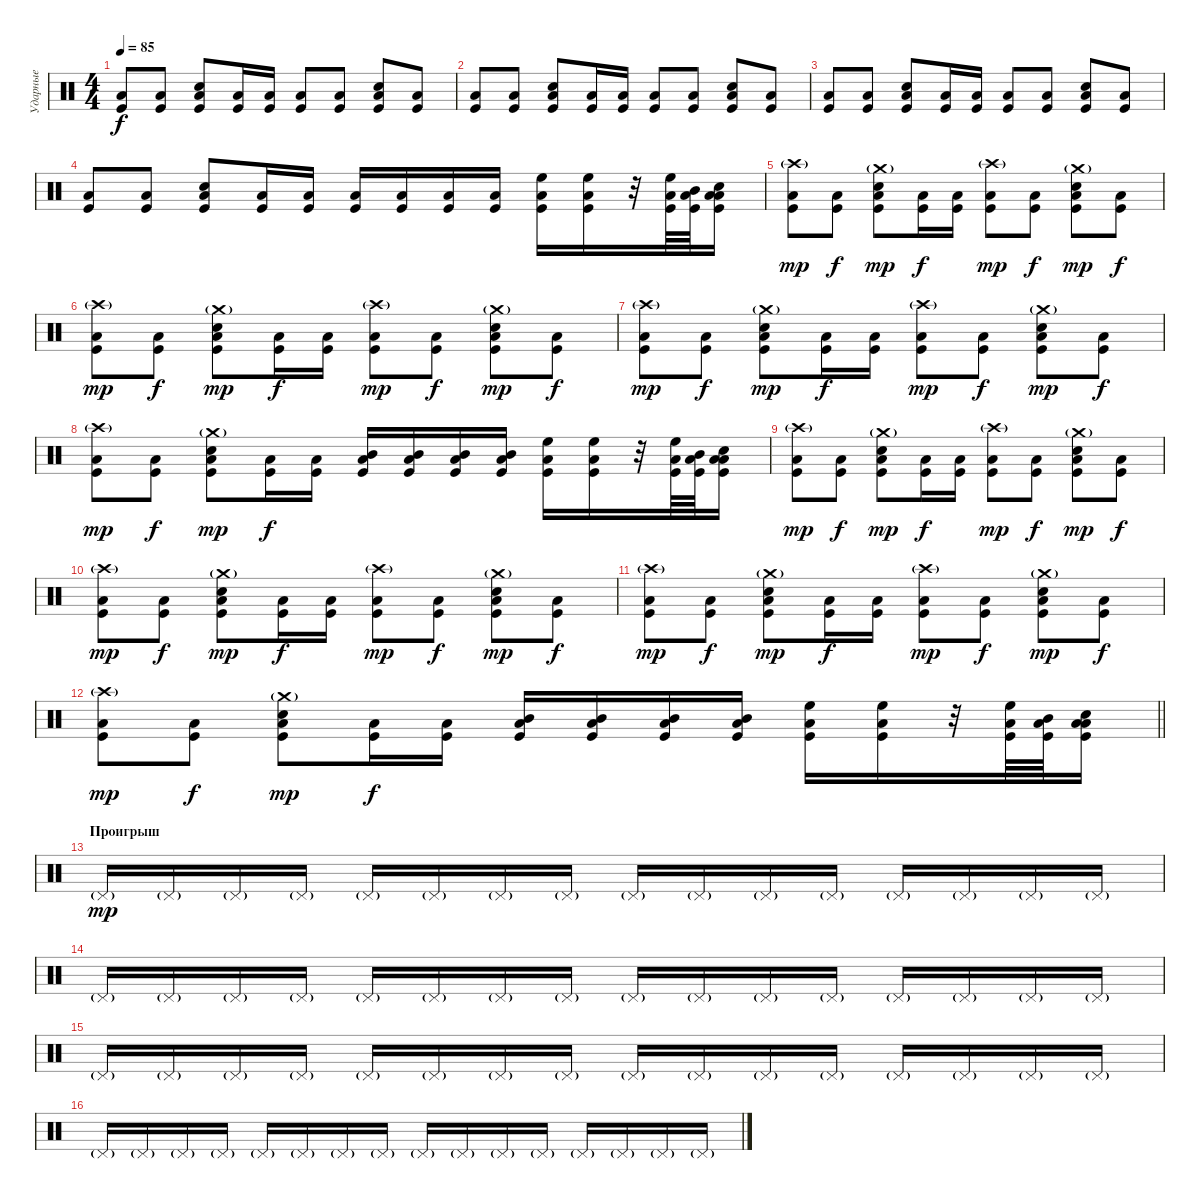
\track ("Ударные" "Ударные") {instrument percussion}
\staff {score}
\articulation defaults
\ts (4 4)
\tempo 85
\clef neutral
\ks c
("Low Tom (hit)" "Kick (hit)").8{dy f} ("Low Tom (hit)" "Kick (hit)").8 ("Electric Snare (hit)" "Low Tom (hit)" "Kick (hit)").8 ("Low Tom (hit)" "Kick (hit)").16 ("Low Tom (hit)" "Kick (hit)").16 ("Low Tom (hit)" "Kick (hit)").8 ("Low Tom (hit)" "Kick (hit)").8 ("Electric Snare (hit)" "Low Tom (hit)" "Kick (hit)").8 ("Low Tom (hit)" "Kick (hit)").8 |
("Low Tom (hit)" "Kick (hit)").8 ("Low Tom (hit)" "Kick (hit)").8 ("Electric Snare (hit)" "Low Tom (hit)" "Kick (hit)").8 ("Low Tom (hit)" "Kick (hit)").16 ("Low Tom (hit)" "Kick (hit)").16 ("Low Tom (hit)" "Kick (hit)").8 ("Low Tom (hit)" "Kick (hit)").8 ("Electric Snare (hit)" "Low Tom (hit)" "Kick (hit)").8 ("Low Tom (hit)" "Kick (hit)").8 |
("Low Tom (hit)" "Kick (hit)").8 ("Low Tom (hit)" "Kick (hit)").8 ("Electric Snare (hit)" "Low Tom (hit)" "Kick (hit)").8 ("Low Tom (hit)" "Kick (hit)").16 ("Low Tom (hit)" "Kick (hit)").16 ("Low Tom (hit)" "Kick (hit)").8 ("Low Tom (hit)" "Kick (hit)").8 ("Electric Snare (hit)" "Low Tom (hit)" "Kick (hit)").8 ("Low Tom (hit)" "Kick (hit)").8 |
("Low Tom (hit)" "Kick (hit)").8 ("Low Tom (hit)" "Kick (hit)").8 ("Electric Snare (hit)" "Low Tom (hit)" "Kick (hit)").8 ("Low Tom (hit)" "Kick (hit)").16 ("Low Tom (hit)" "Kick (hit)").16 ("Low Tom (hit)" "Kick (hit)").16 ("Low Tom (hit)" "Kick (hit)").16 ("Low Tom (hit)" "Kick (hit)").16 ("Low Tom (hit)" "Kick (hit)").16 ("High Floor Tom (hit)" "Low Tom (hit)" "Kick (hit)").16 ("High Floor Tom (hit)" "Low Tom (hit)" "Kick (hit)").16 r.32 ("High Floor Tom (hit)" "Low Tom (hit)" "Kick (hit)").64 ("Mid Tom (hit)" "Low Tom (hit)" "Kick (hit)").64 ("Electric Snare (hit)" "Low Tom (hit)" "Low Tom (hit)" "Kick (hit)").16 |
("Crash high (hit)"{g} "Low Tom (hit)" "Kick (hit)").8{dy mp} ("Low Tom (hit)" "Kick (hit)").8{dy f} ("Crash medium (hit)"{g} "Electric Snare (hit)" "Low Tom (hit)" "Kick (hit)").8{dy mp} ("Low Tom (hit)" "Kick (hit)").16{dy f} ("Low Tom (hit)" "Kick (hit)").16 ("Crash high (hit)"{g} "Low Tom (hit)" "Kick (hit)").8{dy mp} ("Low Tom (hit)" "Kick (hit)").8{dy f} ("Crash medium (hit)"{g} "Electric Snare (hit)" "Low Tom (hit)" "Kick (hit)").8{dy mp} ("Low Tom (hit)" "Kick (hit)").8{dy f} |
("Crash high (hit)"{g} "Low Tom (hit)" "Kick (hit)").8{dy mp} ("Low Tom (hit)" "Kick (hit)").8{dy f} ("Crash medium (hit)"{g} "Electric Snare (hit)" "Low Tom (hit)" "Kick (hit)").8{dy mp} ("Low Tom (hit)" "Kick (hit)").16{dy f} ("Low Tom (hit)" "Kick (hit)").16 ("Crash high (hit)"{g} "Low Tom (hit)" "Kick (hit)").8{dy mp} ("Low Tom (hit)" "Kick (hit)").8{dy f} ("Crash medium (hit)"{g} "Electric Snare (hit)" "Low Tom (hit)" "Kick (hit)").8{dy mp} ("Low Tom (hit)" "Kick (hit)").8{dy f} |
("Crash high (hit)"{g} "Low Tom (hit)" "Kick (hit)").8{dy mp} ("Low Tom (hit)" "Kick (hit)").8{dy f} ("Crash medium (hit)"{g} "Electric Snare (hit)" "Low Tom (hit)" "Kick (hit)").8{dy mp} ("Low Tom (hit)" "Kick (hit)").16{dy f} ("Low Tom (hit)" "Kick (hit)").16 ("Crash high (hit)"{g} "Low Tom (hit)" "Kick (hit)").8{dy mp} ("Low Tom (hit)" "Kick (hit)").8{dy f} ("Crash medium (hit)"{g} "Electric Snare (hit)" "Low Tom (hit)" "Kick (hit)").8{dy mp} ("Low Tom (hit)" "Kick (hit)").8{dy f} |
("Crash high (hit)"{g} "Low Tom (hit)" "Kick (hit)").8{dy mp} ("Low Tom (hit)" "Kick (hit)").8{dy f} ("Crash medium (hit)"{g} "Electric Snare (hit)" "Low Tom (hit)" "Kick (hit)").8{dy mp} ("Low Tom (hit)" "Kick (hit)").16{dy f} ("Low Tom (hit)" "Kick (hit)").16 ("Mid Tom (hit)" "Low Tom (hit)" "Kick (hit)").16 ("Mid Tom (hit)" "Low Tom (hit)" "Kick (hit)").16 ("Mid Tom (hit)" "Low Tom (hit)" "Kick (hit)").16 ("Mid Tom (hit)" "Low Tom (hit)" "Kick (hit)").16 ("High Floor Tom (hit)" "Low Tom (hit)" "Kick (hit)").16 ("High Floor Tom (hit)" "Low Tom (hit)" "Kick (hit)").16 r.32 ("High Floor Tom (hit)" "Low Tom (hit)" "Kick (hit)").64 ("Mid Tom (hit)" "Low Tom (hit)" "Kick (hit)").64 ("Electric Snare (hit)" "Low Tom (hit)" "Low Tom (hit)" "Kick (hit)").16 |
("Crash high (hit)"{g} "Low Tom (hit)" "Kick (hit)").8{dy mp} ("Low Tom (hit)" "Kick (hit)").8{dy f} ("Crash medium (hit)"{g} "Electric Snare (hit)" "Low Tom (hit)" "Kick (hit)").8{dy mp} ("Low Tom (hit)" "Kick (hit)").16{dy f} ("Low Tom (hit)" "Kick (hit)").16 ("Crash high (hit)"{g} "Low Tom (hit)" "Kick (hit)").8{dy mp} ("Low Tom (hit)" "Kick (hit)").8{dy f} ("Crash medium (hit)"{g} "Electric Snare (hit)" "Low Tom (hit)" "Kick (hit)").8{dy mp} ("Low Tom (hit)" "Kick (hit)").8{dy f} |
("Crash high (hit)"{g} "Low Tom (hit)" "Kick (hit)").8{dy mp} ("Low Tom (hit)" "Kick (hit)").8{dy f} ("Crash medium (hit)"{g} "Electric Snare (hit)" "Low Tom (hit)" "Kick (hit)").8{dy mp} ("Low Tom (hit)" "Kick (hit)").16{dy f} ("Low Tom (hit)" "Kick (hit)").16 ("Crash high (hit)"{g} "Low Tom (hit)" "Kick (hit)").8{dy mp} ("Low Tom (hit)" "Kick (hit)").8{dy f} ("Crash medium (hit)"{g} "Electric Snare (hit)" "Low Tom (hit)" "Kick (hit)").8{dy mp} ("Low Tom (hit)" "Kick (hit)").8{dy f} |
("Crash high (hit)"{g} "Low Tom (hit)" "Kick (hit)").8{dy mp} ("Low Tom (hit)" "Kick (hit)").8{dy f} ("Crash medium (hit)"{g} "Electric Snare (hit)" "Low Tom (hit)" "Kick (hit)").8{dy mp} ("Low Tom (hit)" "Kick (hit)").16{dy f} ("Low Tom (hit)" "Kick (hit)").16 ("Crash high (hit)"{g} "Low Tom (hit)" "Kick (hit)").8{dy mp} ("Low Tom (hit)" "Kick (hit)").8{dy f} ("Crash medium (hit)"{g} "Electric Snare (hit)" "Low Tom (hit)" "Kick (hit)").8{dy mp} ("Low Tom (hit)" "Kick (hit)").8{dy f} |
\barLineRight lightlight
("Crash high (hit)"{g} "Low Tom (hit)" "Kick (hit)").8{dy mp} ("Low Tom (hit)" "Kick (hit)").8{dy f} ("Crash medium (hit)"{g} "Electric Snare (hit)" "Low Tom (hit)" "Kick (hit)").8{dy mp} ("Low Tom (hit)" "Kick (hit)").16{dy f} ("Low Tom (hit)" "Kick (hit)").16 ("Mid Tom (hit)" "Low Tom (hit)" "Kick (hit)").16 ("Mid Tom (hit)" "Low Tom (hit)" "Kick (hit)").16 ("Mid Tom (hit)" "Low Tom (hit)" "Kick (hit)").16 ("Mid Tom (hit)" "Low Tom (hit)" "Kick (hit)").16 ("High Floor Tom (hit)" "Low Tom (hit)" "Kick (hit)").16 ("High Floor Tom (hit)" "Low Tom (hit)" "Kick (hit)").16 r.32 ("High Floor Tom (hit)" "Low Tom (hit)" "Kick (hit)").64 ("Mid Tom (hit)" "Low Tom (hit)" "Kick (hit)").64 ("Electric Snare (hit)" "Low Tom (hit)" "Low Tom (hit)" "Kick (hit)").16 |
\section ("" "Проигрыш")
"Pedal Hi-Hat (hit)"{g}.16{dy mp} "Pedal Hi-Hat (hit)"{g}.16 "Pedal Hi-Hat (hit)"{g}.16 "Pedal Hi-Hat (hit)"{g}.16 "Pedal Hi-Hat (hit)"{g}.16 "Pedal Hi-Hat (hit)"{g}.16 "Pedal Hi-Hat (hit)"{g}.16 "Pedal Hi-Hat (hit)"{g}.16 "Pedal Hi-Hat (hit)"{g}.16 "Pedal Hi-Hat (hit)"{g}.16 "Pedal Hi-Hat (hit)"{g}.16 "Pedal Hi-Hat (hit)"{g}.16 "Pedal Hi-Hat (hit)"{g}.16 "Pedal Hi-Hat (hit)"{g}.16 "Pedal Hi-Hat (hit)"{g}.16 "Pedal Hi-Hat (hit)"{g}.16 |
"Pedal Hi-Hat (hit)"{g}.16 "Pedal Hi-Hat (hit)"{g}.16 "Pedal Hi-Hat (hit)"{g}.16 "Pedal Hi-Hat (hit)"{g}.16 "Pedal Hi-Hat (hit)"{g}.16 "Pedal Hi-Hat (hit)"{g}.16 "Pedal Hi-Hat (hit)"{g}.16 "Pedal Hi-Hat (hit)"{g}.16 "Pedal Hi-Hat (hit)"{g}.16 "Pedal Hi-Hat (hit)"{g}.16 "Pedal Hi-Hat (hit)"{g}.16 "Pedal Hi-Hat (hit)"{g}.16 "Pedal Hi-Hat (hit)"{g}.16 "Pedal Hi-Hat (hit)"{g}.16 "Pedal Hi-Hat (hit)"{g}.16 "Pedal Hi-Hat (hit)"{g}.16 |
"Pedal Hi-Hat (hit)"{g}.16 "Pedal Hi-Hat (hit)"{g}.16 "Pedal Hi-Hat (hit)"{g}.16 "Pedal Hi-Hat (hit)"{g}.16 "Pedal Hi-Hat (hit)"{g}.16 "Pedal Hi-Hat (hit)"{g}.16 "Pedal Hi-Hat (hit)"{g}.16 "Pedal Hi-Hat (hit)"{g}.16 "Pedal Hi-Hat (hit)"{g}.16 "Pedal Hi-Hat (hit)"{g}.16 "Pedal Hi-Hat (hit)"{g}.16 "Pedal Hi-Hat (hit)"{g}.16 "Pedal Hi-Hat (hit)"{g}.16 "Pedal Hi-Hat (hit)"{g}.16 "Pedal Hi-Hat (hit)"{g}.16 "Pedal Hi-Hat (hit)"{g}.16 |
"Pedal Hi-Hat (hit)"{g}.16 "Pedal Hi-Hat (hit)"{g}.16 "Pedal Hi-Hat (hit)"{g}.16 "Pedal Hi-Hat (hit)"{g}.16 "Pedal Hi-Hat (hit)"{g}.16 "Pedal Hi-Hat (hit)"{g}.16 "Pedal Hi-Hat (hit)"{g}.16 "Pedal Hi-Hat (hit)"{g}.16 "Pedal Hi-Hat (hit)"{g}.16 "Pedal Hi-Hat (hit)"{g}.16 "Pedal Hi-Hat (hit)"{g}.16 "Pedal Hi-Hat (hit)"{g}.16 "Pedal Hi-Hat (hit)"{g}.16 "Pedal Hi-Hat (hit)"{g}.16 "Pedal Hi-Hat (hit)"{g}.16 "Pedal Hi-Hat (hit)"{g}.16
